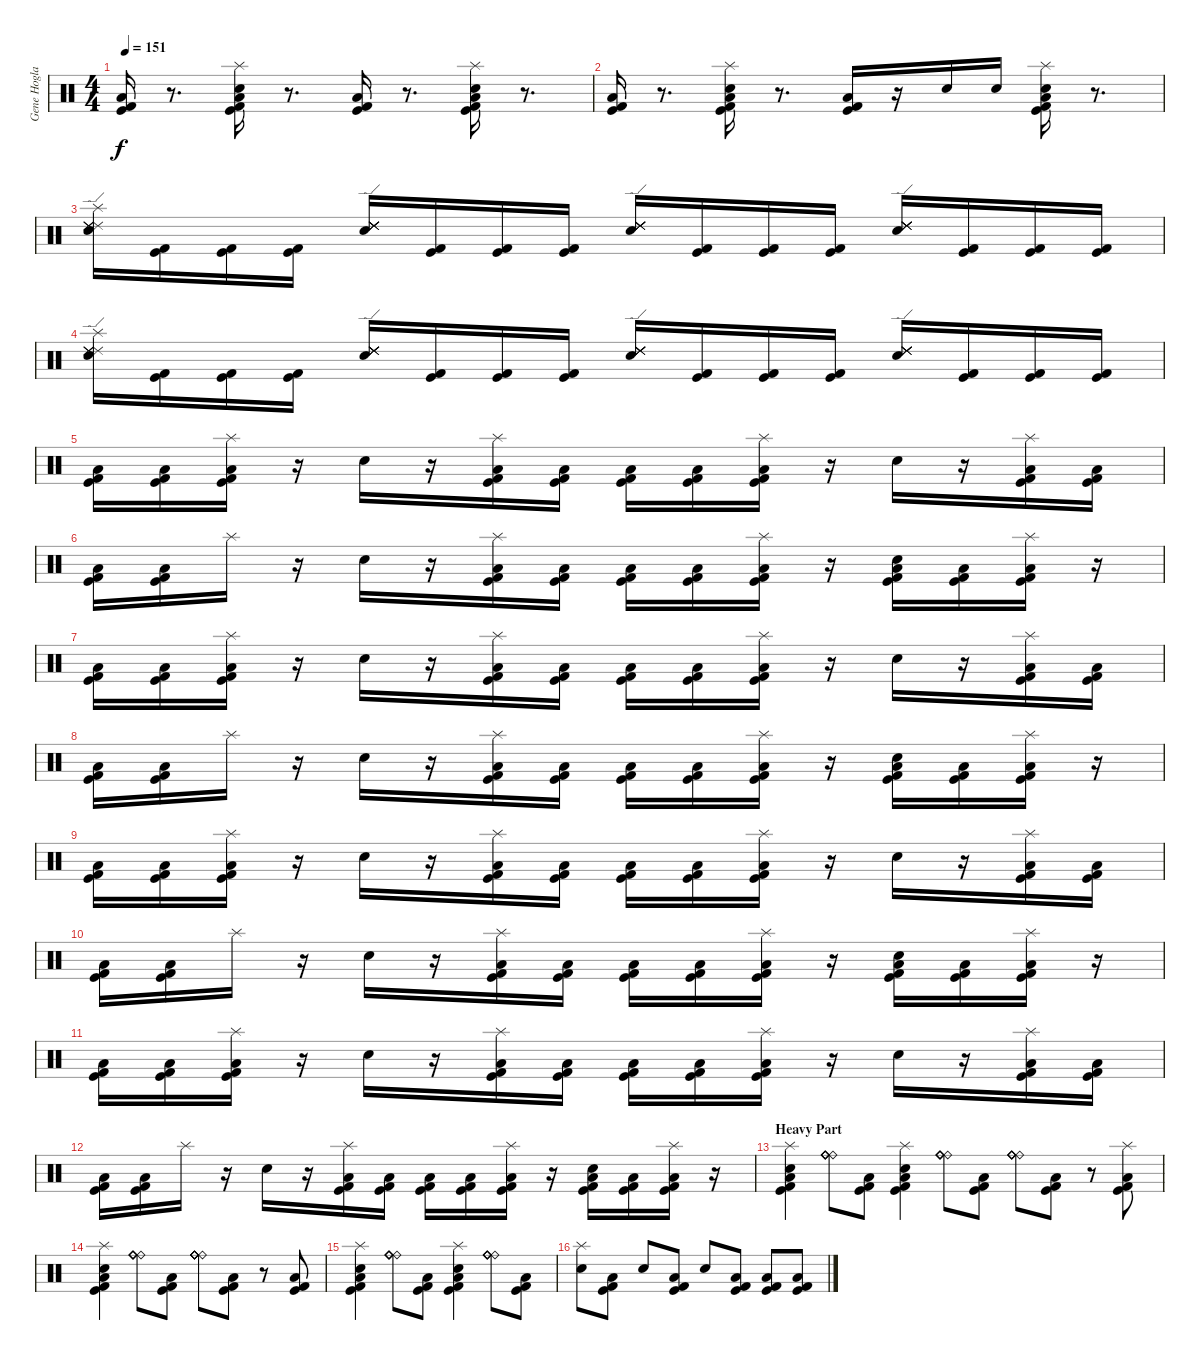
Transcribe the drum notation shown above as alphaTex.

\track ("Gene Hoglan" "Gene Hogla") {instrument percussion}
\staff {score}
\articulation defaults
\ts (4 4)
\tempo 151
\clef neutral
\ks c
("Low Floor Tom (hit)" "Kick (hit)" "Kick (hit) 2").16{dy f} r.8{d} ("Kick (hit)" "Low Floor Tom (hit)" "Splash (hit)" "Snare (hit) 2" "Kick (hit) 2").16 r.8{d} ("Kick (hit)" "Low Floor Tom (hit)" "Kick (hit) 2").16 r.8{d} ("Kick (hit)" "Low Floor Tom (hit)" "Splash (hit)" "Snare (hit) 2" "Kick (hit) 2").16 r.8{d} |
("Low Floor Tom (hit)" "Kick (hit)" "Kick (hit) 2").16 r.8{d} ("Kick (hit)" "Low Floor Tom (hit)" "Splash (hit)" "Snare (hit) 2" "Kick (hit) 2").16 r.8{d} ("Low Floor Tom (hit)" "Kick (hit)" "Kick (hit) 2").16 r.16 "Snare (hit) 2".16 "Snare (hit) 2".16 ("Low Floor Tom (hit)" "Kick (hit)" "Splash (hit)" "Snare (hit) 2" "Kick (hit) 2").16 r.8{d} |
("Splash (hit)" "Electric Snare (hit)" "Ride (edge) 2" "Ride (edge) 2" "Ride (edge) 2" "Ride (edge) 2").16 ("Kick (hit)" "Kick (hit) 2").16 ("Kick (hit)" "Kick (hit) 2").16 ("Kick (hit)" "Kick (hit) 2").16 ("Ride (edge) 2" "Electric Snare (hit)" "Ride (edge) 2" "Ride (edge) 2" "Ride (edge) 2" "Ride (edge) 2").16 ("Kick (hit)" "Kick (hit) 2").16 ("Kick (hit)" "Kick (hit) 2").16 ("Kick (hit)" "Kick (hit) 2").16 ("Ride (edge) 2" "Electric Snare (hit)" "Ride (edge) 2" "Ride (edge) 2" "Ride (edge) 2" "Ride (edge) 2").16 ("Kick (hit)" "Kick (hit) 2").16 ("Kick (hit) 2" "Kick (hit)").16 ("Kick (hit)" "Kick (hit) 2").16 ("Ride (edge) 2" "Electric Snare (hit)" "Ride (edge) 2" "Ride (edge) 2" "Ride (edge) 2" "Ride (edge) 2").16 ("Kick (hit)" "Kick (hit) 2").16 ("Kick (hit)" "Kick (hit) 2").16 ("Kick (hit)" "Kick (hit) 2").16 |
("Splash (hit)" "Electric Snare (hit)" "Ride (edge) 2" "Ride (edge) 2" "Ride (edge) 2" "Ride (edge) 2").16 ("Kick (hit)" "Kick (hit) 2").16 ("Kick (hit)" "Kick (hit) 2").16 ("Kick (hit)" "Kick (hit) 2").16 ("Ride (edge) 2" "Electric Snare (hit)" "Ride (edge) 2" "Ride (edge) 2" "Ride (edge) 2" "Ride (edge) 2").16 ("Kick (hit)" "Kick (hit) 2").16 ("Kick (hit)" "Kick (hit) 2").16 ("Kick (hit)" "Kick (hit) 2").16 ("Ride (edge) 2" "Electric Snare (hit)" "Ride (edge) 2" "Ride (edge) 2" "Ride (edge) 2" "Ride (edge) 2").16 ("Kick (hit)" "Kick (hit) 2").16 ("Kick (hit) 2" "Kick (hit)").16 ("Kick (hit)" "Kick (hit) 2").16 ("Ride (edge) 2" "Electric Snare (hit)" "Ride (edge) 2" "Ride (edge) 2" "Ride (edge) 2" "Ride (edge) 2").16 ("Kick (hit)" "Kick (hit) 2").16 ("Kick (hit)" "Kick (hit) 2").16 ("Kick (hit)" "Kick (hit) 2").16 |
("Low Floor Tom (hit)" "Kick (hit) 2" "Kick (hit)").16 ("Kick (hit) 2" "Low Floor Tom (hit)" "Kick (hit)").16 ("Kick (hit) 2" "Low Floor Tom (hit)" "Splash (hit)" "Kick (hit)").16 r.16 "Snare (hit) 2".16 r.16 ("Low Floor Tom (hit)" "Kick (hit) 2" "Splash (hit)" "Kick (hit)").16 ("Low Floor Tom (hit)" "Kick (hit) 2" "Kick (hit)").16 ("Low Floor Tom (hit)" "Kick (hit) 2" "Kick (hit)").16 ("Low Floor Tom (hit)" "Kick (hit) 2" "Kick (hit)").16 ("Low Floor Tom (hit)" "Kick (hit) 2" "Splash (hit)" "Kick (hit)").16 r.16 "Snare (hit) 2".16 r.16 ("Low Floor Tom (hit)" "Kick (hit) 2" "Splash (hit)" "Kick (hit)").16 ("Low Floor Tom (hit)" "Kick (hit) 2" "Kick (hit)").16 |
("Low Floor Tom (hit)" "Kick (hit) 2" "Kick (hit)").16 ("Low Floor Tom (hit)" "Kick (hit) 2" "Kick (hit)").16 "Splash (hit)".16 r.16 "Snare (hit) 2".16 r.16 ("Splash (hit)" "Low Floor Tom (hit)" "Kick (hit) 2" "Kick (hit)").16 ("Low Floor Tom (hit)" "Kick (hit) 2" "Kick (hit)").16 ("Low Floor Tom (hit)" "Kick (hit) 2" "Kick (hit)").16 ("Low Floor Tom (hit)" "Kick (hit) 2" "Kick (hit)").16 ("Splash (hit)" "Low Floor Tom (hit)" "Kick (hit) 2" "Kick (hit)").16 r.16 ("Kick (hit) 2" "Low Floor Tom (hit)" "Kick (hit)" "Snare (hit) 2").16 ("Kick (hit) 2" "Low Floor Tom (hit)" "Kick (hit)").16 ("Splash (hit)" "Kick (hit) 2" "Low Floor Tom (hit)" "Kick (hit)").16 r.16 |
("Low Floor Tom (hit)" "Kick (hit) 2" "Kick (hit)").16 ("Kick (hit) 2" "Low Floor Tom (hit)" "Kick (hit)").16 ("Kick (hit) 2" "Low Floor Tom (hit)" "Splash (hit)" "Kick (hit)").16 r.16 "Snare (hit) 2".16 r.16 ("Low Floor Tom (hit)" "Kick (hit) 2" "Splash (hit)" "Kick (hit)").16 ("Low Floor Tom (hit)" "Kick (hit) 2" "Kick (hit)").16 ("Low Floor Tom (hit)" "Kick (hit) 2" "Kick (hit)").16 ("Low Floor Tom (hit)" "Kick (hit) 2" "Kick (hit)").16 ("Low Floor Tom (hit)" "Kick (hit) 2" "Splash (hit)" "Kick (hit)").16 r.16 "Snare (hit) 2".16 r.16 ("Low Floor Tom (hit)" "Kick (hit) 2" "Splash (hit)" "Kick (hit)").16 ("Low Floor Tom (hit)" "Kick (hit) 2" "Kick (hit)").16 |
("Low Floor Tom (hit)" "Kick (hit) 2" "Kick (hit)").16 ("Low Floor Tom (hit)" "Kick (hit) 2" "Kick (hit)").16 "Splash (hit)".16 r.16 "Snare (hit) 2".16 r.16 ("Splash (hit)" "Low Floor Tom (hit)" "Kick (hit) 2" "Kick (hit)").16 ("Low Floor Tom (hit)" "Kick (hit) 2" "Kick (hit)").16 ("Low Floor Tom (hit)" "Kick (hit) 2" "Kick (hit)").16 ("Low Floor Tom (hit)" "Kick (hit) 2" "Kick (hit)").16 ("Splash (hit)" "Low Floor Tom (hit)" "Kick (hit) 2" "Kick (hit)").16 r.16 ("Kick (hit) 2" "Low Floor Tom (hit)" "Kick (hit)" "Snare (hit) 2").16 ("Kick (hit) 2" "Low Floor Tom (hit)" "Kick (hit)").16 ("Splash (hit)" "Kick (hit) 2" "Low Floor Tom (hit)" "Kick (hit)").16 r.16 |
("Low Floor Tom (hit)" "Kick (hit) 2" "Kick (hit)").16 ("Kick (hit) 2" "Low Floor Tom (hit)" "Kick (hit)").16 ("Kick (hit) 2" "Low Floor Tom (hit)" "Splash (hit)" "Kick (hit)").16 r.16 "Snare (hit) 2".16 r.16 ("Low Floor Tom (hit)" "Kick (hit) 2" "Splash (hit)" "Kick (hit)").16 ("Low Floor Tom (hit)" "Kick (hit) 2" "Kick (hit)").16 ("Low Floor Tom (hit)" "Kick (hit) 2" "Kick (hit)").16 ("Low Floor Tom (hit)" "Kick (hit) 2" "Kick (hit)").16 ("Low Floor Tom (hit)" "Kick (hit) 2" "Splash (hit)" "Kick (hit)").16 r.16 "Snare (hit) 2".16 r.16 ("Low Floor Tom (hit)" "Kick (hit) 2" "Splash (hit)" "Kick (hit)").16 ("Low Floor Tom (hit)" "Kick (hit) 2" "Kick (hit)").16 |
("Low Floor Tom (hit)" "Kick (hit) 2" "Kick (hit)").16 ("Low Floor Tom (hit)" "Kick (hit) 2" "Kick (hit)").16 "Splash (hit)".16 r.16 "Snare (hit) 2".16 r.16 ("Splash (hit)" "Low Floor Tom (hit)" "Kick (hit) 2" "Kick (hit)").16 ("Low Floor Tom (hit)" "Kick (hit) 2" "Kick (hit)").16 ("Low Floor Tom (hit)" "Kick (hit) 2" "Kick (hit)").16 ("Low Floor Tom (hit)" "Kick (hit) 2" "Kick (hit)").16 ("Splash (hit)" "Low Floor Tom (hit)" "Kick (hit) 2" "Kick (hit)").16 r.16 ("Kick (hit) 2" "Low Floor Tom (hit)" "Kick (hit)" "Snare (hit) 2").16 ("Kick (hit) 2" "Low Floor Tom (hit)" "Kick (hit)").16 ("Splash (hit)" "Kick (hit) 2" "Low Floor Tom (hit)" "Kick (hit)").16 r.16 |
("Low Floor Tom (hit)" "Kick (hit) 2" "Kick (hit)").16 ("Kick (hit) 2" "Low Floor Tom (hit)" "Kick (hit)").16 ("Kick (hit) 2" "Low Floor Tom (hit)" "Splash (hit)" "Kick (hit)").16 r.16 "Snare (hit) 2".16 r.16 ("Low Floor Tom (hit)" "Kick (hit) 2" "Splash (hit)" "Kick (hit)").16 ("Low Floor Tom (hit)" "Kick (hit) 2" "Kick (hit)").16 ("Low Floor Tom (hit)" "Kick (hit) 2" "Kick (hit)").16 ("Low Floor Tom (hit)" "Kick (hit) 2" "Kick (hit)").16 ("Low Floor Tom (hit)" "Kick (hit) 2" "Splash (hit)" "Kick (hit)").16 r.16 "Snare (hit) 2".16 r.16 ("Low Floor Tom (hit)" "Kick (hit) 2" "Splash (hit)" "Kick (hit)").16 ("Low Floor Tom (hit)" "Kick (hit) 2" "Kick (hit)").16 |
("Low Floor Tom (hit)" "Kick (hit) 2" "Kick (hit)").16 ("Low Floor Tom (hit)" "Kick (hit) 2" "Kick (hit)").16 "Splash (hit)".16 r.16 "Snare (hit) 2".16 r.16 ("Splash (hit)" "Low Floor Tom (hit)" "Kick (hit) 2" "Kick (hit)").16 ("Low Floor Tom (hit)" "Kick (hit) 2" "Kick (hit)").16 ("Low Floor Tom (hit)" "Kick (hit) 2" "Kick (hit)").16 ("Low Floor Tom (hit)" "Kick (hit) 2" "Kick (hit)").16 ("Splash (hit)" "Low Floor Tom (hit)" "Kick (hit) 2" "Kick (hit)").16 r.16 ("Kick (hit) 2" "Low Floor Tom (hit)" "Kick (hit)" "Snare (hit) 2").16 ("Kick (hit) 2" "Low Floor Tom (hit)" "Kick (hit)").16 ("Splash (hit)" "Kick (hit) 2" "Low Floor Tom (hit)" "Kick (hit)").16 r.16 |
\section ("" "Heavy Part")
("Splash (hit)" "Low Floor Tom (hit)" "Kick (hit) 2" "Kick (hit)" "Snare (hit) 2").4 ("Ride (bell)" "Ride (bell)" "Ride (bell)" "Ride (bell)" "Ride (bell)" "Ride (bell)").8 ("Low Floor Tom (hit)" "Kick (hit) 2" "Kick (hit)").8 ("Splash (hit)" "Kick (hit)" "Kick (hit) 2" "Low Floor Tom (hit)" "Snare (hit) 2").4 ("Ride (bell)" "Ride (bell)" "Ride (bell)" "Ride (bell)" "Ride (bell)" "Ride (bell)").8 ("Kick (hit)" "Kick (hit) 2" "Low Floor Tom (hit)").8 ("Ride (bell)" "Ride (bell)" "Ride (bell)" "Ride (bell)" "Ride (bell)" "Ride (bell)").8 ("Kick (hit)" "Kick (hit) 2" "Low Floor Tom (hit)").8 r.8 ("Splash (hit)" "Low Floor Tom (hit)" "Kick (hit) 2" "Kick (hit)").8 |
("Splash (hit)" "Low Floor Tom (hit)" "Kick (hit) 2" "Kick (hit)" "Snare (hit) 2").4 ("Ride (bell)" "Ride (bell)" "Ride (bell)" "Ride (bell)" "Ride (bell)" "Ride (bell)").8 ("Kick (hit)" "Kick (hit) 2" "Low Floor Tom (hit)").8 ("Ride (bell)" "Ride (bell)" "Ride (bell)" "Ride (bell)" "Ride (bell)" "Ride (bell)").8 ("Kick (hit)" "Kick (hit) 2" "Low Floor Tom (hit)").8 r.8 ("Kick (hit)" "Kick (hit) 2" "Low Floor Tom (hit)").8 |
("Splash (hit)" "Kick (hit)" "Kick (hit) 2" "Low Floor Tom (hit)" "Snare (hit) 2").4 ("Ride (bell)" "Ride (bell)" "Ride (bell)" "Ride (bell)" "Ride (bell)" "Ride (bell)").8 ("Kick (hit)" "Kick (hit) 2" "Low Floor Tom (hit)").8 ("Splash (hit)" "Kick (hit)" "Kick (hit) 2" "Low Floor Tom (hit)" "Snare (hit) 2").4 ("Ride (bell)" "Ride (bell)" "Ride (bell)" "Ride (bell)" "Ride (bell)" "Ride (bell)").8 ("Kick (hit)" "Kick (hit) 2" "Low Floor Tom (hit)").8 |
("Snare (hit) 2" "Splash (hit)").8 ("Low Floor Tom (hit)" "Kick (hit) 2" "Kick (hit)").8 "Snare (hit) 2".8 ("Low Floor Tom (hit)" "Kick (hit) 2" "Kick (hit)").8 "Snare (hit) 2".8 ("Low Floor Tom (hit)" "Kick (hit) 2" "Kick (hit)").8 ("Low Floor Tom (hit)" "Kick (hit) 2" "Kick (hit)").8 ("Low Floor Tom (hit)" "Kick (hit) 2" "Kick (hit)").8
